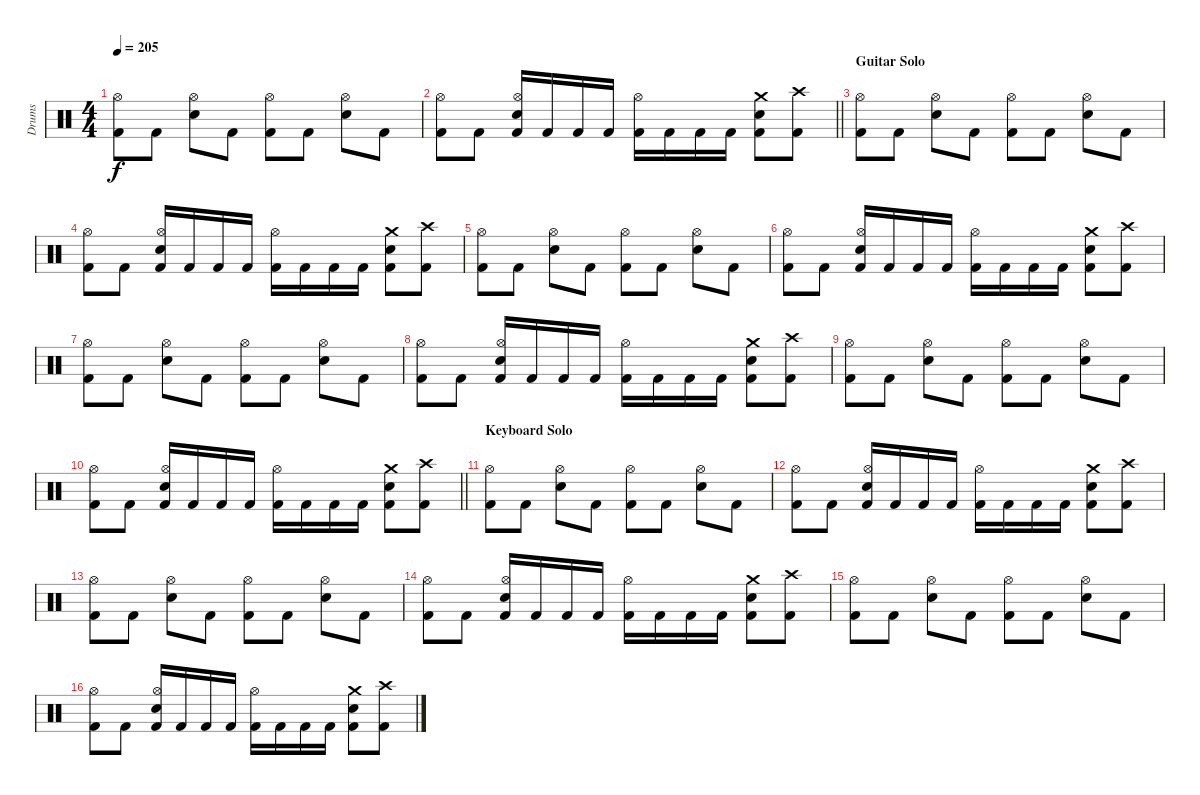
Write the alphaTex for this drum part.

\track ("Drums" "Drums") {instrument percussion}
\staff {score}
\articulation defaults
\ts (4 4)
\tempo 205
\clef neutral
\ks c
("Kick (hit) 2" "Hi-Hat (open)").8{dy f} "Kick (hit) 2".8 ("Snare (hit) 2" "Hi-Hat (open)").8 "Kick (hit) 2".8 ("Kick (hit) 2" "Hi-Hat (open)").8 "Kick (hit) 2".8 ("Snare (hit) 2" "Hi-Hat (open)").8 "Kick (hit) 2".8 |
\barLineRight lightlight
("Kick (hit) 2" "Hi-Hat (open)").8 "Kick (hit) 2".8 ("Kick (hit) 2" "Snare (hit) 2" "Hi-Hat (open)").16 "Kick (hit) 2".16 "Kick (hit) 2".16 "Kick (hit) 2".16 ("Kick (hit) 2" "Hi-Hat (open)").16 "Kick (hit) 2".16 "Kick (hit) 2".16 "Kick (hit) 2".16 ("Kick (hit) 2" "Snare (hit) 2" "Crash medium (hit)").8 ("Kick (hit) 2" "Crash high (hit)").8 |
\section ("" "Guitar Solo")
("Kick (hit) 2" "Hi-Hat (open)").8 "Kick (hit) 2".8 ("Snare (hit) 2" "Hi-Hat (open)").8 "Kick (hit) 2".8 ("Kick (hit) 2" "Hi-Hat (open)").8 "Kick (hit) 2".8 ("Snare (hit) 2" "Hi-Hat (open)").8 "Kick (hit) 2".8 |
("Kick (hit) 2" "Hi-Hat (open)").8 "Kick (hit) 2".8 ("Kick (hit) 2" "Snare (hit) 2" "Hi-Hat (open)").16 "Kick (hit) 2".16 "Kick (hit) 2".16 "Kick (hit) 2".16 ("Kick (hit) 2" "Hi-Hat (open)").16 "Kick (hit) 2".16 "Kick (hit) 2".16 "Kick (hit) 2".16 ("Kick (hit) 2" "Snare (hit) 2" "Crash medium (hit)").8 ("Kick (hit) 2" "Crash high (hit)").8 |
("Kick (hit) 2" "Hi-Hat (open)").8 "Kick (hit) 2".8 ("Snare (hit) 2" "Hi-Hat (open)").8 "Kick (hit) 2".8 ("Kick (hit) 2" "Hi-Hat (open)").8 "Kick (hit) 2".8 ("Snare (hit) 2" "Hi-Hat (open)").8 "Kick (hit) 2".8 |
("Kick (hit) 2" "Hi-Hat (open)").8 "Kick (hit) 2".8 ("Kick (hit) 2" "Snare (hit) 2" "Hi-Hat (open)").16 "Kick (hit) 2".16 "Kick (hit) 2".16 "Kick (hit) 2".16 ("Kick (hit) 2" "Hi-Hat (open)").16 "Kick (hit) 2".16 "Kick (hit) 2".16 "Kick (hit) 2".16 ("Kick (hit) 2" "Snare (hit) 2" "Crash medium (hit)").8 ("Kick (hit) 2" "Crash high (hit)").8 |
("Kick (hit) 2" "Hi-Hat (open)").8 "Kick (hit) 2".8 ("Snare (hit) 2" "Hi-Hat (open)").8 "Kick (hit) 2".8 ("Kick (hit) 2" "Hi-Hat (open)").8 "Kick (hit) 2".8 ("Snare (hit) 2" "Hi-Hat (open)").8 "Kick (hit) 2".8 |
("Kick (hit) 2" "Hi-Hat (open)").8 "Kick (hit) 2".8 ("Kick (hit) 2" "Snare (hit) 2" "Hi-Hat (open)").16 "Kick (hit) 2".16 "Kick (hit) 2".16 "Kick (hit) 2".16 ("Kick (hit) 2" "Hi-Hat (open)").16 "Kick (hit) 2".16 "Kick (hit) 2".16 "Kick (hit) 2".16 ("Kick (hit) 2" "Snare (hit) 2" "Crash medium (hit)").8 ("Kick (hit) 2" "Crash high (hit)").8 |
("Kick (hit) 2" "Hi-Hat (open)").8 "Kick (hit) 2".8 ("Snare (hit) 2" "Hi-Hat (open)").8 "Kick (hit) 2".8 ("Kick (hit) 2" "Hi-Hat (open)").8 "Kick (hit) 2".8 ("Snare (hit) 2" "Hi-Hat (open)").8 "Kick (hit) 2".8 |
\barLineRight lightlight
("Kick (hit) 2" "Hi-Hat (open)").8 "Kick (hit) 2".8 ("Kick (hit) 2" "Snare (hit) 2" "Hi-Hat (open)").16 "Kick (hit) 2".16 "Kick (hit) 2".16 "Kick (hit) 2".16 ("Kick (hit) 2" "Hi-Hat (open)").16 "Kick (hit) 2".16 "Kick (hit) 2".16 "Kick (hit) 2".16 ("Kick (hit) 2" "Snare (hit) 2" "Crash medium (hit)").8 ("Kick (hit) 2" "Crash high (hit)").8 |
\section ("" "Keyboard Solo")
("Kick (hit) 2" "Hi-Hat (open)").8 "Kick (hit) 2".8 ("Snare (hit) 2" "Hi-Hat (open)").8 "Kick (hit) 2".8 ("Kick (hit) 2" "Hi-Hat (open)").8 "Kick (hit) 2".8 ("Snare (hit) 2" "Hi-Hat (open)").8 "Kick (hit) 2".8 |
("Kick (hit) 2" "Hi-Hat (open)").8 "Kick (hit) 2".8 ("Kick (hit) 2" "Snare (hit) 2" "Hi-Hat (open)").16 "Kick (hit) 2".16 "Kick (hit) 2".16 "Kick (hit) 2".16 ("Kick (hit) 2" "Hi-Hat (open)").16 "Kick (hit) 2".16 "Kick (hit) 2".16 "Kick (hit) 2".16 ("Kick (hit) 2" "Snare (hit) 2" "Crash medium (hit)").8 ("Kick (hit) 2" "Crash high (hit)").8 |
("Kick (hit) 2" "Hi-Hat (open)").8 "Kick (hit) 2".8 ("Snare (hit) 2" "Hi-Hat (open)").8 "Kick (hit) 2".8 ("Kick (hit) 2" "Hi-Hat (open)").8 "Kick (hit) 2".8 ("Snare (hit) 2" "Hi-Hat (open)").8 "Kick (hit) 2".8 |
("Kick (hit) 2" "Hi-Hat (open)").8 "Kick (hit) 2".8 ("Kick (hit) 2" "Snare (hit) 2" "Hi-Hat (open)").16 "Kick (hit) 2".16 "Kick (hit) 2".16 "Kick (hit) 2".16 ("Kick (hit) 2" "Hi-Hat (open)").16 "Kick (hit) 2".16 "Kick (hit) 2".16 "Kick (hit) 2".16 ("Kick (hit) 2" "Snare (hit) 2" "Crash medium (hit)").8 ("Kick (hit) 2" "Crash high (hit)").8 |
("Kick (hit) 2" "Hi-Hat (open)").8 "Kick (hit) 2".8 ("Snare (hit) 2" "Hi-Hat (open)").8 "Kick (hit) 2".8 ("Kick (hit) 2" "Hi-Hat (open)").8 "Kick (hit) 2".8 ("Snare (hit) 2" "Hi-Hat (open)").8 "Kick (hit) 2".8 |
("Kick (hit) 2" "Hi-Hat (open)").8 "Kick (hit) 2".8 ("Kick (hit) 2" "Snare (hit) 2" "Hi-Hat (open)").16 "Kick (hit) 2".16 "Kick (hit) 2".16 "Kick (hit) 2".16 ("Kick (hit) 2" "Hi-Hat (open)").16 "Kick (hit) 2".16 "Kick (hit) 2".16 "Kick (hit) 2".16 ("Kick (hit) 2" "Snare (hit) 2" "Crash medium (hit)").8 ("Kick (hit) 2" "Crash high (hit)").8
